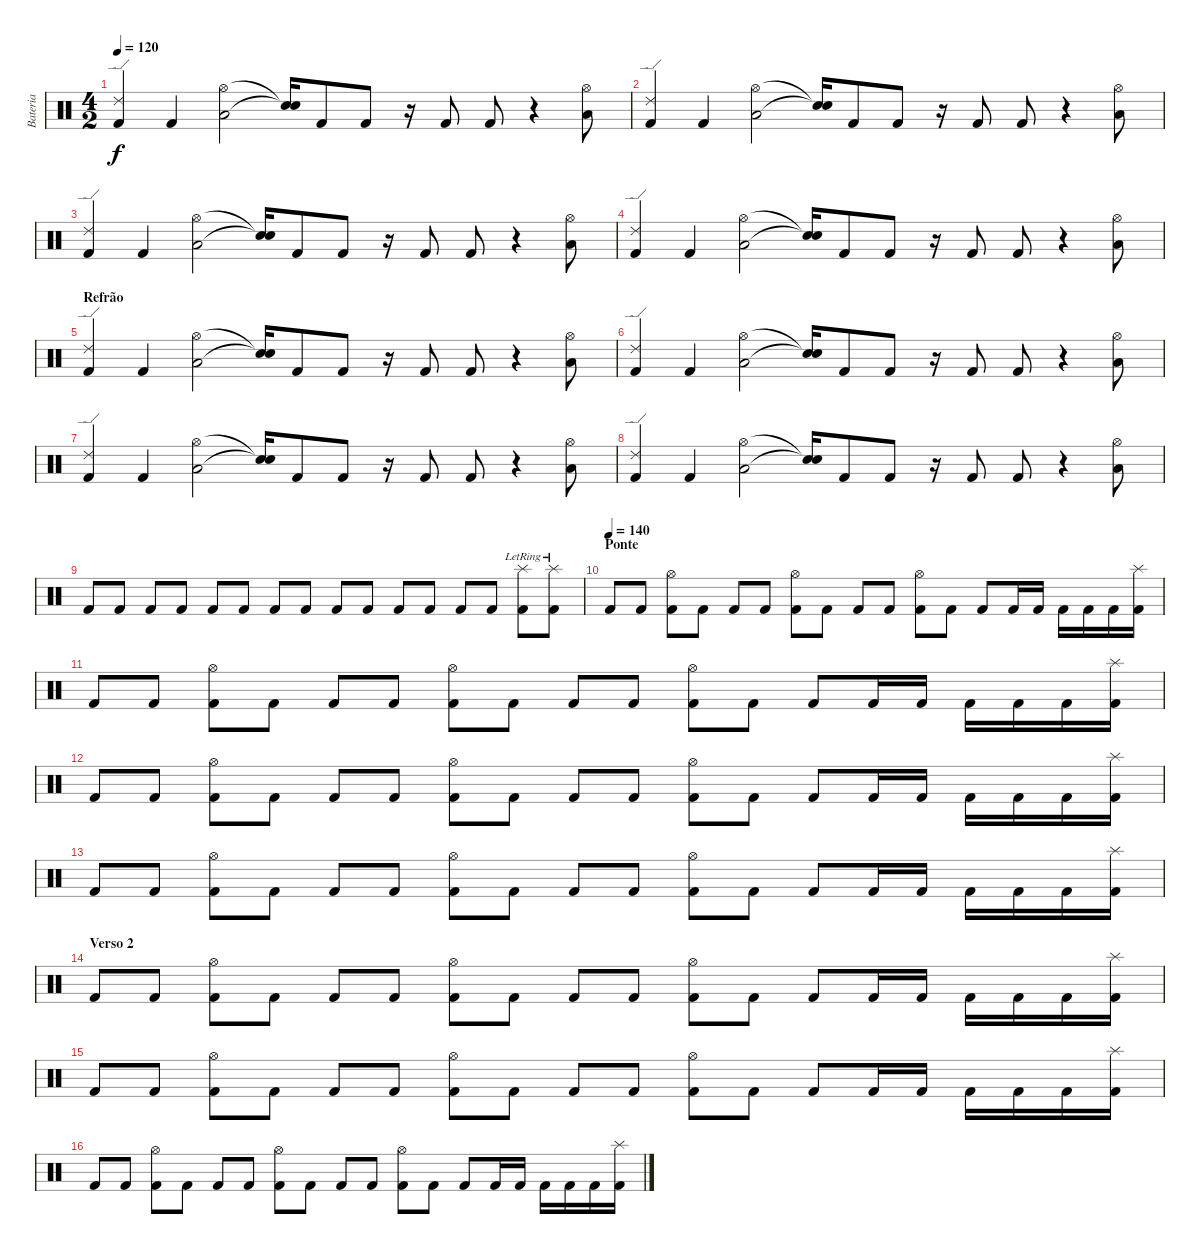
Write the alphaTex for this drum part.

\track ("Bateria" "Bateria") {instrument percussion}
\staff {score}
\articulation defaults
\ts (4 2)
\tempo 120
\clef neutral
\ks c
("Kick (hit) 2" "Ride (edge) 2").4{dy f} "Kick (hit) 2".4 ("Low Tom (hit)" "Hi-Hat (open)").2 ("Snare (hit)"{t} "Snare (hit)"{t}).16 "Kick (hit) 2".8 "Kick (hit) 2".8 r.16 "Kick (hit) 2".8 "Kick (hit) 2".8 r.4 ("Low Tom (hit)" "Hi-Hat (open)").8 |
("Kick (hit) 2" "Ride (edge) 2").4 "Kick (hit) 2".4 ("Low Tom (hit)" "Hi-Hat (open)").2 ("Snare (hit)"{t} "Snare (hit)"{t}).16 "Kick (hit) 2".8 "Kick (hit) 2".8 r.16 "Kick (hit) 2".8 "Kick (hit) 2".8 r.4 ("Low Tom (hit)" "Hi-Hat (open)").8 |
("Kick (hit) 2" "Ride (edge) 2").4 "Kick (hit) 2".4 ("Low Tom (hit)" "Hi-Hat (open)").2 ("Snare (hit)"{t} "Snare (hit)"{t}).16 "Kick (hit) 2".8 "Kick (hit) 2".8 r.16 "Kick (hit) 2".8 "Kick (hit) 2".8 r.4 ("Low Tom (hit)" "Hi-Hat (open)").8 |
("Kick (hit) 2" "Ride (edge) 2").4 "Kick (hit) 2".4 ("Low Tom (hit)" "Hi-Hat (open)").2 ("Snare (hit)"{t} "Snare (hit)"{t}).16 "Kick (hit) 2".8 "Kick (hit) 2".8 r.16 "Kick (hit) 2".8 "Kick (hit) 2".8 r.4 ("Low Tom (hit)" "Hi-Hat (open)").8 |
\section ("" "Refrão")
("Kick (hit) 2" "Ride (edge) 2").4 "Kick (hit) 2".4 ("Low Tom (hit)" "Hi-Hat (open)").2 ("Snare (hit)"{t} "Snare (hit)"{t}).16 "Kick (hit) 2".8 "Kick (hit) 2".8 r.16 "Kick (hit) 2".8 "Kick (hit) 2".8 r.4 ("Low Tom (hit)" "Hi-Hat (open)").8 |
("Kick (hit) 2" "Ride (edge) 2").4 "Kick (hit) 2".4 ("Low Tom (hit)" "Hi-Hat (open)").2 ("Snare (hit)"{t} "Snare (hit)"{t}).16 "Kick (hit) 2".8 "Kick (hit) 2".8 r.16 "Kick (hit) 2".8 "Kick (hit) 2".8 r.4 ("Low Tom (hit)" "Hi-Hat (open)").8 |
("Kick (hit) 2" "Ride (edge) 2").4 "Kick (hit) 2".4 ("Low Tom (hit)" "Hi-Hat (open)").2 ("Snare (hit)"{t} "Snare (hit)"{t}).16 "Kick (hit) 2".8 "Kick (hit) 2".8 r.16 "Kick (hit) 2".8 "Kick (hit) 2".8 r.4 ("Low Tom (hit)" "Hi-Hat (open)").8 |
("Kick (hit) 2" "Ride (edge) 2").4 "Kick (hit) 2".4 ("Low Tom (hit)" "Hi-Hat (open)").2 ("Snare (hit)"{t} "Snare (hit)"{t}).16 "Kick (hit) 2".8 "Kick (hit) 2".8 r.16 "Kick (hit) 2".8 "Kick (hit) 2".8 r.4 ("Low Tom (hit)" "Hi-Hat (open)").8 |
"Kick (hit) 2".8 "Kick (hit) 2".8 "Kick (hit) 2".8 "Kick (hit) 2".8 "Kick (hit) 2".8 "Kick (hit) 2".8 "Kick (hit) 2".8 "Kick (hit) 2".8 "Kick (hit) 2".8 "Kick (hit) 2".8 "Kick (hit) 2".8 "Kick (hit) 2".8 "Kick (hit) 2".8 "Kick (hit) 2".8 ("Kick (hit) 2" "Splash (hit)"{lr}).8 ("Kick (hit) 2" "Splash (hit)"{lr}).8 |
\section ("" "Ponte")
\tempo (140)
"Kick (hit) 2".8 "Kick (hit) 2".8 ("Kick (hit) 2" "Hi-Hat (open)").8 "Kick (hit) 2".8 "Kick (hit) 2".8 "Kick (hit) 2".8 ("Kick (hit) 2" "Hi-Hat (open)").8 "Kick (hit) 2".8 "Kick (hit) 2".8 "Kick (hit) 2".8 ("Kick (hit) 2" "Hi-Hat (open)").8 "Kick (hit) 2".8 "Kick (hit) 2".8 "Kick (hit) 2".16 "Kick (hit) 2".16 "Kick (hit) 2".16 "Kick (hit) 2".16 "Kick (hit) 2".16 ("Kick (hit) 2" "Splash (hit)").16 |
"Kick (hit) 2".8 "Kick (hit) 2".8 ("Kick (hit) 2" "Hi-Hat (open)").8 "Kick (hit) 2".8 "Kick (hit) 2".8 "Kick (hit) 2".8 ("Kick (hit) 2" "Hi-Hat (open)").8 "Kick (hit) 2".8 "Kick (hit) 2".8 "Kick (hit) 2".8 ("Kick (hit) 2" "Hi-Hat (open)").8 "Kick (hit) 2".8 "Kick (hit) 2".8 "Kick (hit) 2".16 "Kick (hit) 2".16 "Kick (hit) 2".16 "Kick (hit) 2".16 "Kick (hit) 2".16 ("Kick (hit) 2" "Splash (hit)").16 |
"Kick (hit) 2".8 "Kick (hit) 2".8 ("Kick (hit) 2" "Hi-Hat (open)").8 "Kick (hit) 2".8 "Kick (hit) 2".8 "Kick (hit) 2".8 ("Kick (hit) 2" "Hi-Hat (open)").8 "Kick (hit) 2".8 "Kick (hit) 2".8 "Kick (hit) 2".8 ("Kick (hit) 2" "Hi-Hat (open)").8 "Kick (hit) 2".8 "Kick (hit) 2".8 "Kick (hit) 2".16 "Kick (hit) 2".16 "Kick (hit) 2".16 "Kick (hit) 2".16 "Kick (hit) 2".16 ("Kick (hit) 2" "Splash (hit)").16 |
"Kick (hit) 2".8 "Kick (hit) 2".8 ("Kick (hit) 2" "Hi-Hat (open)").8 "Kick (hit) 2".8 "Kick (hit) 2".8 "Kick (hit) 2".8 ("Kick (hit) 2" "Hi-Hat (open)").8 "Kick (hit) 2".8 "Kick (hit) 2".8 "Kick (hit) 2".8 ("Kick (hit) 2" "Hi-Hat (open)").8 "Kick (hit) 2".8 "Kick (hit) 2".8 "Kick (hit) 2".16 "Kick (hit) 2".16 "Kick (hit) 2".16 "Kick (hit) 2".16 "Kick (hit) 2".16 ("Kick (hit) 2" "Splash (hit)").16 |
\section ("" "Verso 2")
"Kick (hit) 2".8 "Kick (hit) 2".8 ("Kick (hit) 2" "Hi-Hat (open)").8 "Kick (hit) 2".8 "Kick (hit) 2".8 "Kick (hit) 2".8 ("Kick (hit) 2" "Hi-Hat (open)").8 "Kick (hit) 2".8 "Kick (hit) 2".8 "Kick (hit) 2".8 ("Kick (hit) 2" "Hi-Hat (open)").8 "Kick (hit) 2".8 "Kick (hit) 2".8 "Kick (hit) 2".16 "Kick (hit) 2".16 "Kick (hit) 2".16 "Kick (hit) 2".16 "Kick (hit) 2".16 ("Kick (hit) 2" "Splash (hit)").16 |
"Kick (hit) 2".8 "Kick (hit) 2".8 ("Kick (hit) 2" "Hi-Hat (open)").8 "Kick (hit) 2".8 "Kick (hit) 2".8 "Kick (hit) 2".8 ("Kick (hit) 2" "Hi-Hat (open)").8 "Kick (hit) 2".8 "Kick (hit) 2".8 "Kick (hit) 2".8 ("Kick (hit) 2" "Hi-Hat (open)").8 "Kick (hit) 2".8 "Kick (hit) 2".8 "Kick (hit) 2".16 "Kick (hit) 2".16 "Kick (hit) 2".16 "Kick (hit) 2".16 "Kick (hit) 2".16 ("Kick (hit) 2" "Splash (hit)").16 |
"Kick (hit) 2".8 "Kick (hit) 2".8 ("Kick (hit) 2" "Hi-Hat (open)").8 "Kick (hit) 2".8 "Kick (hit) 2".8 "Kick (hit) 2".8 ("Kick (hit) 2" "Hi-Hat (open)").8 "Kick (hit) 2".8 "Kick (hit) 2".8 "Kick (hit) 2".8 ("Kick (hit) 2" "Hi-Hat (open)").8 "Kick (hit) 2".8 "Kick (hit) 2".8 "Kick (hit) 2".16 "Kick (hit) 2".16 "Kick (hit) 2".16 "Kick (hit) 2".16 "Kick (hit) 2".16 ("Kick (hit) 2" "Splash (hit)").16
